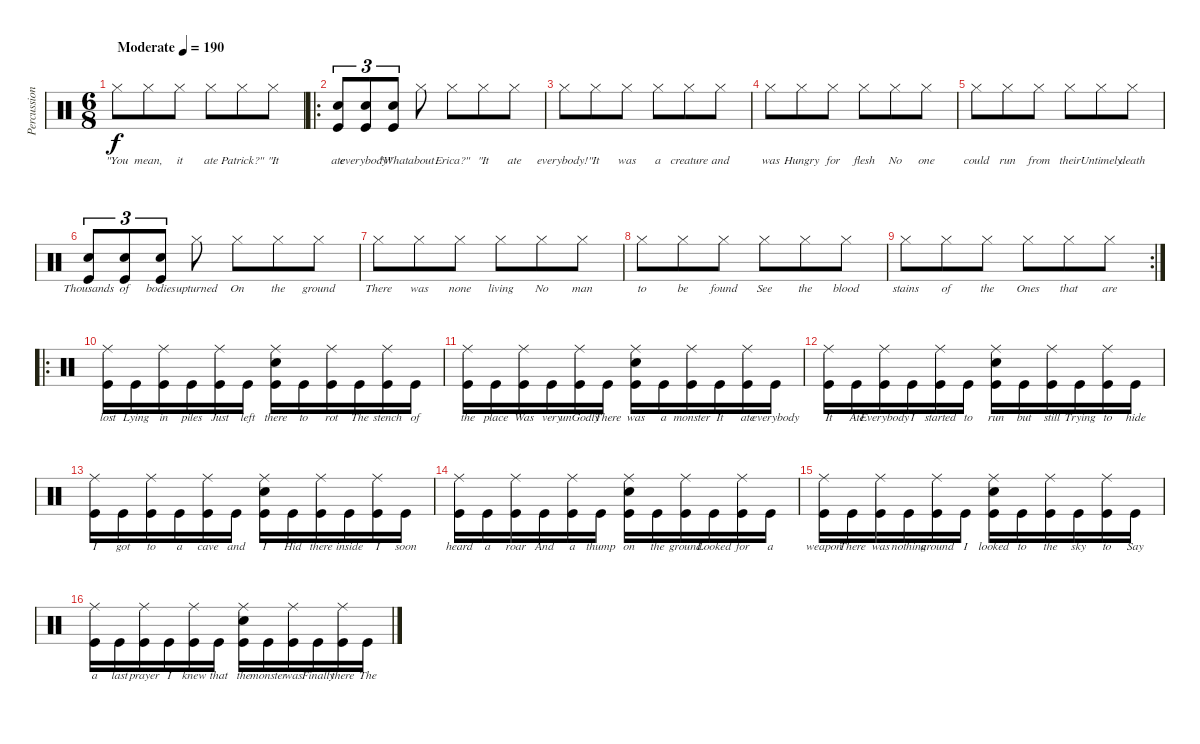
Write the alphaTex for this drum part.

\track ("Percussion" "Percussion") {instrument percussion}
\staff {score}
\articulation defaults
\ts (6 8)
\tempo (190 "Moderate")
\clef neutral
\ks c "Hi-Hat (closed)".8{lyrics (0 "\"You") lyrics (1 "") lyrics (2 "") lyrics (3 "") lyrics (4 "") dy f} "Hi-Hat (closed)".8{lyrics (0 "mean,") lyrics (1 "") lyrics (2 "") lyrics (3 "") lyrics (4 "")} "Hi-Hat (closed)".8{lyrics (0 "it") lyrics (1 "") lyrics (2 "") lyrics (3 "") lyrics (4 "")} "Hi-Hat (closed)".8{lyrics (0 "ate") lyrics (1 "") lyrics (2 "") lyrics (3 "") lyrics (4 "")} "Hi-Hat (closed)".8{lyrics (0 "Patrick?\"") lyrics (1 "") lyrics (2 "") lyrics (3 "") lyrics (4 "")} "Hi-Hat (closed)".8{lyrics (0 "\"It") lyrics (1 "") lyrics (2 "") lyrics (3 "") lyrics (4 "")}
|
\ro
("Snare (hit) 2" "Kick (hit)").8{tu (3 2) lyrics (0 "ate") lyrics (1 "") lyrics (2 "") lyrics (3 "") lyrics (4 "")} ("Snare (hit) 2" "Kick (hit)").8{tu (3 2) lyrics (0 "everybody\"") lyrics (1 "") lyrics (2 "") lyrics (3 "") lyrics (4 "")} ("Snare (hit) 2" "Kick (hit)").8{tu (3 2) lyrics (0 "\"What") lyrics (1 "") lyrics (2 "") lyrics (3 "") lyrics (4 "")} "Hi-Hat (closed)".8{lyrics (0 "about") lyrics (1 "") lyrics (2 "") lyrics (3 "") lyrics (4 "")} "Hi-Hat (closed)".8{lyrics (0 "Erica?\"") lyrics (1 "") lyrics (2 "") lyrics (3 "") lyrics (4 "")} "Hi-Hat (closed)".8{lyrics (0 "\"It") lyrics (1 "") lyrics (2 "") lyrics (3 "") lyrics (4 "")} "Hi-Hat (closed)".8{lyrics (0 "ate") lyrics (1 "") lyrics (2 "") lyrics (3 "") lyrics (4 "")} |
"Hi-Hat (closed)".8{lyrics (0 "everybody!\"") lyrics (1 "") lyrics (2 "") lyrics (3 "") lyrics (4 "")} "Hi-Hat (closed)".8{lyrics (0 "It") lyrics (1 "") lyrics (2 "") lyrics (3 "") lyrics (4 "")} "Hi-Hat (closed)".8{lyrics (0 "was") lyrics (1 "") lyrics (2 "") lyrics (3 "") lyrics (4 "")} "Hi-Hat (closed)".8{lyrics (0 "a") lyrics (1 "") lyrics (2 "") lyrics (3 "") lyrics (4 "")} "Hi-Hat (closed)".8{lyrics (0 "creature") lyrics (1 "") lyrics (2 "") lyrics (3 "") lyrics (4 "")} "Hi-Hat (closed)".8{lyrics (0 "and") lyrics (1 "") lyrics (2 "") lyrics (3 "") lyrics (4 "")} |
"Hi-Hat (closed)".8{lyrics (0 "was") lyrics (1 "") lyrics (2 "") lyrics (3 "") lyrics (4 "")} "Hi-Hat (closed)".8{lyrics (0 "Hungry") lyrics (1 "") lyrics (2 "") lyrics (3 "") lyrics (4 "")} "Hi-Hat (closed)".8{lyrics (0 "for") lyrics (1 "") lyrics (2 "") lyrics (3 "") lyrics (4 "")} "Hi-Hat (closed)".8{lyrics (0 "flesh") lyrics (1 "") lyrics (2 "") lyrics (3 "") lyrics (4 "")} "Hi-Hat (closed)".8{lyrics (0 "No") lyrics (1 "") lyrics (2 "") lyrics (3 "") lyrics (4 "")} "Hi-Hat (closed)".8{lyrics (0 "one") lyrics (1 "") lyrics (2 "") lyrics (3 "") lyrics (4 "")} |
"Hi-Hat (closed)".8{lyrics (0 "could") lyrics (1 "") lyrics (2 "") lyrics (3 "") lyrics (4 "")} "Hi-Hat (closed)".8{lyrics (0 "run") lyrics (1 "") lyrics (2 "") lyrics (3 "") lyrics (4 "")} "Hi-Hat (closed)".8{lyrics (0 "from") lyrics (1 "") lyrics (2 "") lyrics (3 "") lyrics (4 "")} "Hi-Hat (closed)".8{lyrics (0 "their") lyrics (1 "") lyrics (2 "") lyrics (3 "") lyrics (4 "")} "Hi-Hat (closed)".8{lyrics (0 "Untimely") lyrics (1 "") lyrics (2 "") lyrics (3 "") lyrics (4 "")} "Hi-Hat (closed)".8{lyrics (0 "death") lyrics (1 "") lyrics (2 "") lyrics (3 "") lyrics (4 "")} |
("Snare (hit) 2" "Kick (hit)").8{tu (3 2) lyrics (0 "Thousands") lyrics (1 "") lyrics (2 "") lyrics (3 "") lyrics (4 "")} ("Snare (hit) 2" "Kick (hit)").8{tu (3 2) lyrics (0 "of") lyrics (1 "") lyrics (2 "") lyrics (3 "") lyrics (4 "")} ("Snare (hit) 2" "Kick (hit)").8{tu (3 2) lyrics (0 "bodies") lyrics (1 "") lyrics (2 "") lyrics (3 "") lyrics (4 "")} "Hi-Hat (closed)".8{lyrics (0 "upturned") lyrics (1 "") lyrics (2 "") lyrics (3 "") lyrics (4 "")} "Hi-Hat (closed)".8{lyrics (0 "On") lyrics (1 "") lyrics (2 "") lyrics (3 "") lyrics (4 "")} "Hi-Hat (closed)".8{lyrics (0 "the") lyrics (1 "") lyrics (2 "") lyrics (3 "") lyrics (4 "")} "Hi-Hat (closed)".8{lyrics (0 "ground") lyrics (1 "") lyrics (2 "") lyrics (3 "") lyrics (4 "")} |
"Hi-Hat (closed)".8{lyrics (0 "There") lyrics (1 "") lyrics (2 "") lyrics (3 "") lyrics (4 "")} "Hi-Hat (closed)".8{lyrics (0 "was") lyrics (1 "") lyrics (2 "") lyrics (3 "") lyrics (4 "")} "Hi-Hat (closed)".8{lyrics (0 "none") lyrics (1 "") lyrics (2 "") lyrics (3 "") lyrics (4 "")} "Hi-Hat (closed)".8{lyrics (0 "living") lyrics (1 "") lyrics (2 "") lyrics (3 "") lyrics (4 "")} "Hi-Hat (closed)".8{lyrics (0 "No") lyrics (1 "") lyrics (2 "") lyrics (3 "") lyrics (4 "")} "Hi-Hat (closed)".8{lyrics (0 "man") lyrics (1 "") lyrics (2 "") lyrics (3 "") lyrics (4 "")} |
"Hi-Hat (closed)".8{lyrics (0 "to") lyrics (1 "") lyrics (2 "") lyrics (3 "") lyrics (4 "")} "Hi-Hat (closed)".8{lyrics (0 "be") lyrics (1 "") lyrics (2 "") lyrics (3 "") lyrics (4 "")} "Hi-Hat (closed)".8{lyrics (0 "found") lyrics (1 "") lyrics (2 "") lyrics (3 "") lyrics (4 "")} "Hi-Hat (closed)".8{lyrics (0 "See") lyrics (1 "") lyrics (2 "") lyrics (3 "") lyrics (4 "")} "Hi-Hat (closed)".8{lyrics (0 "the") lyrics (1 "") lyrics (2 "") lyrics (3 "") lyrics (4 "")} "Hi-Hat (closed)".8{lyrics (0 "blood") lyrics (1 "") lyrics (2 "") lyrics (3 "") lyrics (4 "")} |
\rc 2 "Hi-Hat (closed)".8{lyrics (0 "stains") lyrics (1 "") lyrics (2 "") lyrics (3 "") lyrics (4 "")} "Hi-Hat (closed)".8{lyrics (0 "of") lyrics (1 "") lyrics (2 "") lyrics (3 "") lyrics (4 "")} "Hi-Hat (closed)".8{lyrics (0 "the") lyrics (1 "") lyrics (2 "") lyrics (3 "") lyrics (4 "")} "Hi-Hat (closed)".8{lyrics (0 "Ones") lyrics (1 "") lyrics (2 "") lyrics (3 "") lyrics (4 "")} "Hi-Hat (closed)".8{lyrics (0 "that") lyrics (1 "") lyrics (2 "") lyrics (3 "") lyrics (4 "")} "Hi-Hat (closed)".8{lyrics (0 "are") lyrics (1 "") lyrics (2 "") lyrics (3 "") lyrics (4 "")}
|
\ro
("Ride (middle)" "Kick (hit)").16{lyrics (0 "lost") lyrics (1 "") lyrics (2 "") lyrics (3 "") lyrics (4 "")} "Kick (hit)".16{lyrics (0 "Lying") lyrics (1 "") lyrics (2 "") lyrics (3 "") lyrics (4 "")} ("Ride (middle)" "Kick (hit)").16{lyrics (0 "in") lyrics (1 "") lyrics (2 "") lyrics (3 "") lyrics (4 "")} "Kick (hit)".16{lyrics (0 "piles") lyrics (1 "") lyrics (2 "") lyrics (3 "") lyrics (4 "")} ("Ride (middle)" "Kick (hit)").16{lyrics (0 "Just") lyrics (1 "") lyrics (2 "") lyrics (3 "") lyrics (4 "")} "Kick (hit)".16{lyrics (0 "left") lyrics (1 "") lyrics (2 "") lyrics (3 "") lyrics (4 "")} ("Ride (middle)" "Snare (hit) 2" "Kick (hit)").16{lyrics (0 "there") lyrics (1 "") lyrics (2 "") lyrics (3 "") lyrics (4 "")} "Kick (hit)".16{lyrics (0 "to") lyrics (1 "") lyrics (2 "") lyrics (3 "") lyrics (4 "")} ("Ride (middle)" "Kick (hit)").16{lyrics (0 "rot") lyrics (1 "") lyrics (2 "") lyrics (3 "") lyrics (4 "")} "Kick (hit)".16{lyrics (0 "The") lyrics (1 "") lyrics (2 "") lyrics (3 "") lyrics (4 "")} ("Ride (middle)" "Kick (hit)").16{lyrics (0 "stench") lyrics (1 "") lyrics (2 "") lyrics (3 "") lyrics (4 "")} "Kick (hit)".16{lyrics (0 "of") lyrics (1 "") lyrics (2 "") lyrics (3 "") lyrics (4 "")} |
("Ride (middle)" "Kick (hit)").16{lyrics (0 "the") lyrics (1 "") lyrics (2 "") lyrics (3 "") lyrics (4 "")} "Kick (hit)".16{lyrics (0 "place") lyrics (1 "") lyrics (2 "") lyrics (3 "") lyrics (4 "")} ("Ride (middle)" "Kick (hit)").16{lyrics (0 "Was") lyrics (1 "") lyrics (2 "") lyrics (3 "") lyrics (4 "")} "Kick (hit)".16{lyrics (0 "very") lyrics (1 "") lyrics (2 "") lyrics (3 "") lyrics (4 "")} ("Ride (middle)" "Kick (hit)").16{lyrics (0 "unGodly") lyrics (1 "") lyrics (2 "") lyrics (3 "") lyrics (4 "")} "Kick (hit)".16{lyrics (0 "There") lyrics (1 "") lyrics (2 "") lyrics (3 "") lyrics (4 "")} ("Ride (middle)" "Snare (hit) 2" "Kick (hit)").16{lyrics (0 "was") lyrics (1 "") lyrics (2 "") lyrics (3 "") lyrics (4 "")} "Kick (hit)".16{lyrics (0 "a") lyrics (1 "") lyrics (2 "") lyrics (3 "") lyrics (4 "")} ("Ride (middle)" "Kick (hit)").16{lyrics (0 "monster") lyrics (1 "") lyrics (2 "") lyrics (3 "") lyrics (4 "")} "Kick (hit)".16{lyrics (0 "It") lyrics (1 "") lyrics (2 "") lyrics (3 "") lyrics (4 "")} ("Ride (middle)" "Kick (hit)").16{lyrics (0 "ate") lyrics (1 "") lyrics (2 "") lyrics (3 "") lyrics (4 "")} "Kick (hit)".16{lyrics (0 "everybody") lyrics (1 "") lyrics (2 "") lyrics (3 "") lyrics (4 "")} |
("Ride (middle)" "Kick (hit)").16{lyrics (0 "It") lyrics (1 "") lyrics (2 "") lyrics (3 "") lyrics (4 "")} "Kick (hit)".16{lyrics (0 "Ate") lyrics (1 "") lyrics (2 "") lyrics (3 "") lyrics (4 "")} ("Ride (middle)" "Kick (hit)").16{lyrics (0 "Everybody") lyrics (1 "") lyrics (2 "") lyrics (3 "") lyrics (4 "")} "Kick (hit)".16{lyrics (0 "I") lyrics (1 "") lyrics (2 "") lyrics (3 "") lyrics (4 "")} ("Ride (middle)" "Kick (hit)").16{lyrics (0 "started") lyrics (1 "") lyrics (2 "") lyrics (3 "") lyrics (4 "")} "Kick (hit)".16{lyrics (0 "to") lyrics (1 "") lyrics (2 "") lyrics (3 "") lyrics (4 "")} ("Ride (middle)" "Snare (hit) 2" "Kick (hit)").16{lyrics (0 "run") lyrics (1 "") lyrics (2 "") lyrics (3 "") lyrics (4 "")} "Kick (hit)".16{lyrics (0 "but") lyrics (1 "") lyrics (2 "") lyrics (3 "") lyrics (4 "")} ("Ride (middle)" "Kick (hit)").16{lyrics (0 "still") lyrics (1 "") lyrics (2 "") lyrics (3 "") lyrics (4 "")} "Kick (hit)".16{lyrics (0 "Trying") lyrics (1 "") lyrics (2 "") lyrics (3 "") lyrics (4 "")} ("Ride (middle)" "Kick (hit)").16{lyrics (0 "to") lyrics (1 "") lyrics (2 "") lyrics (3 "") lyrics (4 "")} "Kick (hit)".16{lyrics (0 "hide") lyrics (1 "") lyrics (2 "") lyrics (3 "") lyrics (4 "")} |
("Ride (middle)" "Kick (hit)").16{lyrics (0 "I") lyrics (1 "") lyrics (2 "") lyrics (3 "") lyrics (4 "")} "Kick (hit)".16{lyrics (0 "got") lyrics (1 "") lyrics (2 "") lyrics (3 "") lyrics (4 "")} ("Ride (middle)" "Kick (hit)").16{lyrics (0 "to") lyrics (1 "") lyrics (2 "") lyrics (3 "") lyrics (4 "")} "Kick (hit)".16{lyrics (0 "a") lyrics (1 "") lyrics (2 "") lyrics (3 "") lyrics (4 "")} ("Ride (middle)" "Kick (hit)").16{lyrics (0 "cave") lyrics (1 "") lyrics (2 "") lyrics (3 "") lyrics (4 "")} "Kick (hit)".16{lyrics (0 "and") lyrics (1 "") lyrics (2 "") lyrics (3 "") lyrics (4 "")} ("Ride (middle)" "Snare (hit) 2" "Kick (hit)").16{lyrics (0 "I") lyrics (1 "") lyrics (2 "") lyrics (3 "") lyrics (4 "")} "Kick (hit)".16{lyrics (0 "Hid") lyrics (1 "") lyrics (2 "") lyrics (3 "") lyrics (4 "")} ("Ride (middle)" "Kick (hit)").16{lyrics (0 "there") lyrics (1 "") lyrics (2 "") lyrics (3 "") lyrics (4 "")} "Kick (hit)".16{lyrics (0 "inside") lyrics (1 "") lyrics (2 "") lyrics (3 "") lyrics (4 "")} ("Ride (middle)" "Kick (hit)").16{lyrics (0 "I") lyrics (1 "") lyrics (2 "") lyrics (3 "") lyrics (4 "")} "Kick (hit)".16{lyrics (0 "soon") lyrics (1 "") lyrics (2 "") lyrics (3 "") lyrics (4 "")} |
("Ride (middle)" "Kick (hit)").16{lyrics (0 "heard") lyrics (1 "") lyrics (2 "") lyrics (3 "") lyrics (4 "")} "Kick (hit)".16{lyrics (0 "a") lyrics (1 "") lyrics (2 "") lyrics (3 "") lyrics (4 "")} ("Ride (middle)" "Kick (hit)").16{lyrics (0 "roar") lyrics (1 "") lyrics (2 "") lyrics (3 "") lyrics (4 "")} "Kick (hit)".16{lyrics (0 "And") lyrics (1 "") lyrics (2 "") lyrics (3 "") lyrics (4 "")} ("Ride (middle)" "Kick (hit)").16{lyrics (0 "a") lyrics (1 "") lyrics (2 "") lyrics (3 "") lyrics (4 "")} "Kick (hit)".16{lyrics (0 "thump") lyrics (1 "") lyrics (2 "") lyrics (3 "") lyrics (4 "")} ("Ride (middle)" "Snare (hit) 2" "Kick (hit)").16{lyrics (0 "on") lyrics (1 "") lyrics (2 "") lyrics (3 "") lyrics (4 "")} "Kick (hit)".16{lyrics (0 "the") lyrics (1 "") lyrics (2 "") lyrics (3 "") lyrics (4 "")} ("Ride (middle)" "Kick (hit)").16{lyrics (0 "ground") lyrics (1 "") lyrics (2 "") lyrics (3 "") lyrics (4 "")} "Kick (hit)".16{lyrics (0 "Looked") lyrics (1 "") lyrics (2 "") lyrics (3 "") lyrics (4 "")} ("Ride (middle)" "Kick (hit)").16{lyrics (0 "for") lyrics (1 "") lyrics (2 "") lyrics (3 "") lyrics (4 "")} "Kick (hit)".16{lyrics (0 "a") lyrics (1 "") lyrics (2 "") lyrics (3 "") lyrics (4 "")} |
("Ride (middle)" "Kick (hit)").16{lyrics (0 "weapon") lyrics (1 "") lyrics (2 "") lyrics (3 "") lyrics (4 "")} "Kick (hit)".16{lyrics (0 "There") lyrics (1 "") lyrics (2 "") lyrics (3 "") lyrics (4 "")} ("Ride (middle)" "Kick (hit)").16{lyrics (0 "was") lyrics (1 "") lyrics (2 "") lyrics (3 "") lyrics (4 "")} "Kick (hit)".16{lyrics (0 "nothing") lyrics (1 "") lyrics (2 "") lyrics (3 "") lyrics (4 "")} ("Ride (middle)" "Kick (hit)").16{lyrics (0 "around") lyrics (1 "") lyrics (2 "") lyrics (3 "") lyrics (4 "")} "Kick (hit)".16{lyrics (0 "I") lyrics (1 "") lyrics (2 "") lyrics (3 "") lyrics (4 "")} ("Ride (middle)" "Snare (hit) 2" "Kick (hit)").16{lyrics (0 "looked") lyrics (1 "") lyrics (2 "") lyrics (3 "") lyrics (4 "")} "Kick (hit)".16{lyrics (0 "to") lyrics (1 "") lyrics (2 "") lyrics (3 "") lyrics (4 "")} ("Ride (middle)" "Kick (hit)").16{lyrics (0 "the") lyrics (1 "") lyrics (2 "") lyrics (3 "") lyrics (4 "")} "Kick (hit)".16{lyrics (0 "sky") lyrics (1 "") lyrics (2 "") lyrics (3 "") lyrics (4 "")} ("Ride (middle)" "Kick (hit)").16{lyrics (0 "to") lyrics (1 "") lyrics (2 "") lyrics (3 "") lyrics (4 "")} "Kick (hit)".16{lyrics (0 "Say") lyrics (1 "") lyrics (2 "") lyrics (3 "") lyrics (4 "")} |
("Ride (middle)" "Kick (hit)").16{lyrics (0 "a") lyrics (1 "") lyrics (2 "") lyrics (3 "") lyrics (4 "")} "Kick (hit)".16{lyrics (0 "last") lyrics (1 "") lyrics (2 "") lyrics (3 "") lyrics (4 "")} ("Ride (middle)" "Kick (hit)").16{lyrics (0 "prayer") lyrics (1 "") lyrics (2 "") lyrics (3 "") lyrics (4 "")} "Kick (hit)".16{lyrics (0 "I") lyrics (1 "") lyrics (2 "") lyrics (3 "") lyrics (4 "")} ("Ride (middle)" "Kick (hit)").16{lyrics (0 "knew") lyrics (1 "") lyrics (2 "") lyrics (3 "") lyrics (4 "")} "Kick (hit)".16{lyrics (0 "that") lyrics (1 "") lyrics (2 "") lyrics (3 "") lyrics (4 "")} ("Ride (middle)" "Snare (hit) 2" "Kick (hit)").16{lyrics (0 "the") lyrics (1 "") lyrics (2 "") lyrics (3 "") lyrics (4 "")} "Kick (hit)".16{lyrics (0 "monster") lyrics (1 "") lyrics (2 "") lyrics (3 "") lyrics (4 "")} ("Ride (middle)" "Kick (hit)").16{lyrics (0 "was") lyrics (1 "") lyrics (2 "") lyrics (3 "") lyrics (4 "")} "Kick (hit)".16{lyrics (0 "Finally") lyrics (1 "") lyrics (2 "") lyrics (3 "") lyrics (4 "")} ("Ride (middle)" "Kick (hit)").16{lyrics (0 "there") lyrics (1 "") lyrics (2 "") lyrics (3 "") lyrics (4 "")} "Kick (hit)".16{lyrics (0 "The") lyrics (1 "") lyrics (2 "") lyrics (3 "") lyrics (4 "")}
